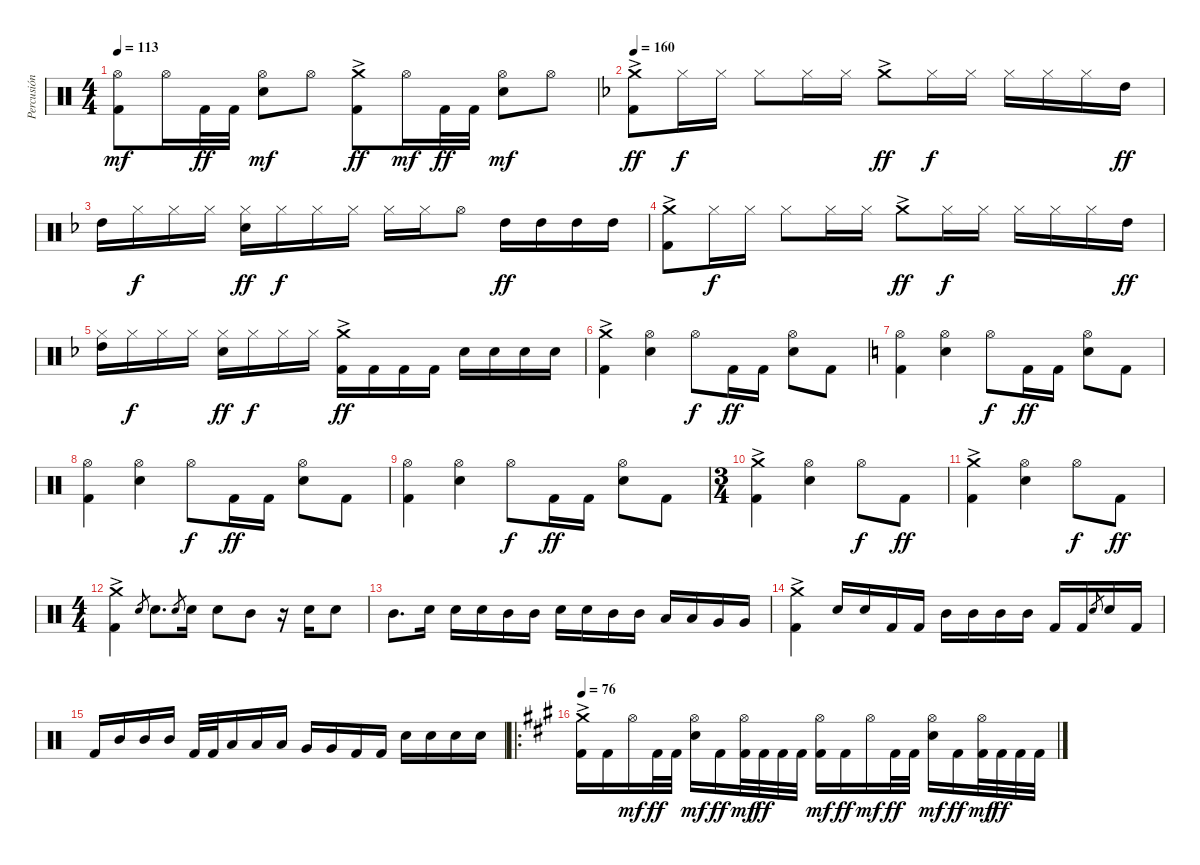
\track ("Percusión" "Percusión") {instrument percussion}
\staff {score}
\articulation defaults
\ts (4 4)
\tempo 113
\clef neutral
\ks c
("Kick (hit) 2" "Hi-Hat (open)").8{dy mf} "Hi-Hat (open)".16 "Kick (hit) 2".32{dy ff} "Kick (hit) 2".32 ("Electric Snare (hit)" "Hi-Hat (open)").8{dy mf} "Hi-Hat (open)".8 ("Kick (hit) 2" "Crash medium (hit)"{ac}).8{dy ff} "Hi-Hat (open)".16{dy mf} "Kick (hit) 2".32{dy ff} "Kick (hit) 2".32 ("Electric Snare (hit)" "Hi-Hat (open)").8{dy mf} "Hi-Hat (open)".8 |
\tempo 160
\ks f
("Kick (hit) 2" "Crash medium (hit)"{ac}).8{dy ff} "Hi-Hat (closed)".16{dy f} "Hi-Hat (closed)".16 "Hi-Hat (closed)".8 "Hi-Hat (closed)".16 "Hi-Hat (closed)".16 "Crash medium (hit)"{ac}.8{dy ff} "Hi-Hat (closed)".16{dy f} "Hi-Hat (closed)".16 "Hi-Hat (closed)".16 "Hi-Hat (closed)".16 "Hi-Hat (closed)".16 "High Tom (hit)".16{dy ff} |
"High Tom (hit)".16 "Hi-Hat (closed)".16{dy f} "Hi-Hat (closed)".16 "Hi-Hat (closed)".16 ("Electric Snare (hit)" "Hi-Hat (closed)").16{dy ff} "Hi-Hat (closed)".16{dy f} "Hi-Hat (closed)".16 "Hi-Hat (closed)".16 "Hi-Hat (closed)".16 "Hi-Hat (closed)".16 "Hi-Hat (open)".8 "High Tom (hit)".16{dy ff} "High Tom (hit)".16 "High Tom (hit)".16 "High Tom (hit)".16 |
("Kick (hit) 2" "Crash medium (hit)"{ac}).8 "Hi-Hat (closed)".16{dy f} "Hi-Hat (closed)".16 "Hi-Hat (closed)".8 "Hi-Hat (closed)".16 "Hi-Hat (closed)".16 "Crash medium (hit)"{ac}.8{dy ff} "Hi-Hat (closed)".16{dy f} "Hi-Hat (closed)".16 "Hi-Hat (closed)".16 "Hi-Hat (closed)".16 "Hi-Hat (closed)".16 "High Tom (hit)".16{dy ff} |
("High Tom (hit)" "Hi-Hat (closed)").16 "Hi-Hat (closed)".16{dy f} "Hi-Hat (closed)".16 "Hi-Hat (closed)".16 ("Electric Snare (hit)" "Hi-Hat (closed)").16{dy ff} "Hi-Hat (closed)".16{dy f} "Hi-Hat (closed)".16 "Hi-Hat (closed)".16 ("Kick (hit) 2" "Crash medium (hit)"{ac}).16{dy ff} "Kick (hit) 2".16 "Kick (hit) 2".16 "Kick (hit) 2".16 "Electric Snare (hit)".16 "Electric Snare (hit)".16 "Electric Snare (hit)".16 "Electric Snare (hit)".16 |
("Kick (hit) 2" "Crash medium (hit)"{ac}).4 ("Electric Snare (hit)" "Hi-Hat (open)").4 "Hi-Hat (open)".8{dy f} "Kick (hit) 2".16{dy ff} "Kick (hit) 2".16 ("Electric Snare (hit)" "Hi-Hat (open)").8 "Kick (hit) 2".8 |
\ks c
("Kick (hit) 2" "Hi-Hat (open)").4 ("Electric Snare (hit)" "Hi-Hat (open)").4 "Hi-Hat (open)".8{dy f} "Kick (hit) 2".16{dy ff} "Kick (hit) 2".16 ("Electric Snare (hit)" "Hi-Hat (open)").8 "Kick (hit) 2".8 |
("Kick (hit) 2" "Hi-Hat (open)").4 ("Electric Snare (hit)" "Hi-Hat (open)").4 "Hi-Hat (open)".8{dy f} "Kick (hit) 2".16{dy ff} "Kick (hit) 2".16 ("Electric Snare (hit)" "Hi-Hat (open)").8 "Kick (hit) 2".8 |
("Kick (hit) 2" "Hi-Hat (open)").4 ("Electric Snare (hit)" "Hi-Hat (open)").4 "Hi-Hat (open)".8{dy f} "Kick (hit) 2".16{dy ff} "Kick (hit) 2".16 ("Electric Snare (hit)" "Hi-Hat (open)").8 "Kick (hit) 2".8 |
\ts (3 4)
("Kick (hit) 2" "Crash medium (hit)"{ac}).4 ("Electric Snare (hit)" "Hi-Hat (open)").4 "Hi-Hat (open)".8{dy f} "Kick (hit) 2".8{dy ff} |
("Kick (hit) 2" "Crash medium (hit)"{ac}).4 ("Electric Snare (hit)" "Hi-Hat (open)").4 "Hi-Hat (open)".8{dy f} "Kick (hit) 2".8{dy ff} |
\ts (4 4)
("Kick (hit) 2" "Crash medium (hit)"{ac}).4 "Electric Snare (hit)".8{gr} "Electric Snare (hit)".8{d} "Electric Snare (hit)".8{gr} "Electric Snare (hit)".16 "Electric Snare (hit)".8 "Mid Tom (hit)".8 r.16 "Electric Snare (hit)".16 "Electric Snare (hit)".8 |
"Mid Tom (hit)".8{d} "Electric Snare (hit)".16 "Electric Snare (hit)".16 "Electric Snare (hit)".16 "Mid Tom (hit)".16 "Mid Tom (hit)".16 "Electric Snare (hit)".16 "Electric Snare (hit)".16 "Mid Tom (hit)".16 "Mid Tom (hit)".16 "Low Tom (hit)".16 "Low Tom (hit)".16 "Very Low Tom (hit)".16 "Very Low Tom (hit)".16 |
("Kick (hit) 2" "Crash medium (hit)"{ac}).4 "Electric Snare (hit)".16 "Electric Snare (hit)".16 "Kick (hit) 2".16 "Kick (hit) 2".16 "Mid Tom (hit)".16 "Mid Tom (hit)".16 "Mid Tom (hit)".16 "Mid Tom (hit)".16 "Kick (hit) 2".16 "Kick (hit) 2".16 "Electric Snare (hit)".8{gr} "Electric Snare (hit)".16 "Kick (hit) 2".16 |
"Kick (hit) 2".16 "Mid Tom (hit)".16 "Mid Tom (hit)".16 "Mid Tom (hit)".16 "Kick (hit) 2".32 "Kick (hit) 2".32 "Low Tom (hit)".16 "Low Tom (hit)".16 "Low Tom (hit)".16 "Very Low Tom (hit)".16 "Very Low Tom (hit)".16 "Kick (hit) 2".16 "Kick (hit) 2".16 "Electric Snare (hit)".16 "Electric Snare (hit)".16 "Electric Snare (hit)".16 "Electric Snare (hit)".16 |
\ro
\tempo 76
\ks a
("Kick (hit) 2" "Crash medium (hit)"{ac}).16 "Kick (hit) 2".16 "Hi-Hat (open)".16{dy mf} "Kick (hit) 2".32{dy ff} "Kick (hit) 2".32 ("Electric Snare (hit)" "Hi-Hat (open)").16{dy mf} "Kick (hit) 2".16{dy ff} ("Kick (hit) 2" "Hi-Hat (open)").32{dy mf} "Kick (hit) 2".32{dy ff} "Kick (hit) 2".32 "Kick (hit) 2".32 ("Kick (hit) 2" "Hi-Hat (open)").16{dy mf} "Kick (hit) 2".16{dy ff} "Hi-Hat (open)".16{dy mf} "Kick (hit) 2".32{dy ff} "Kick (hit) 2".32 ("Electric Snare (hit)" "Hi-Hat (open)").16{dy mf} "Kick (hit) 2".16{dy ff} ("Kick (hit) 2" "Hi-Hat (open)").32{dy mf} "Kick (hit) 2".32{dy ff} "Kick (hit) 2".32 "Kick (hit) 2".32
